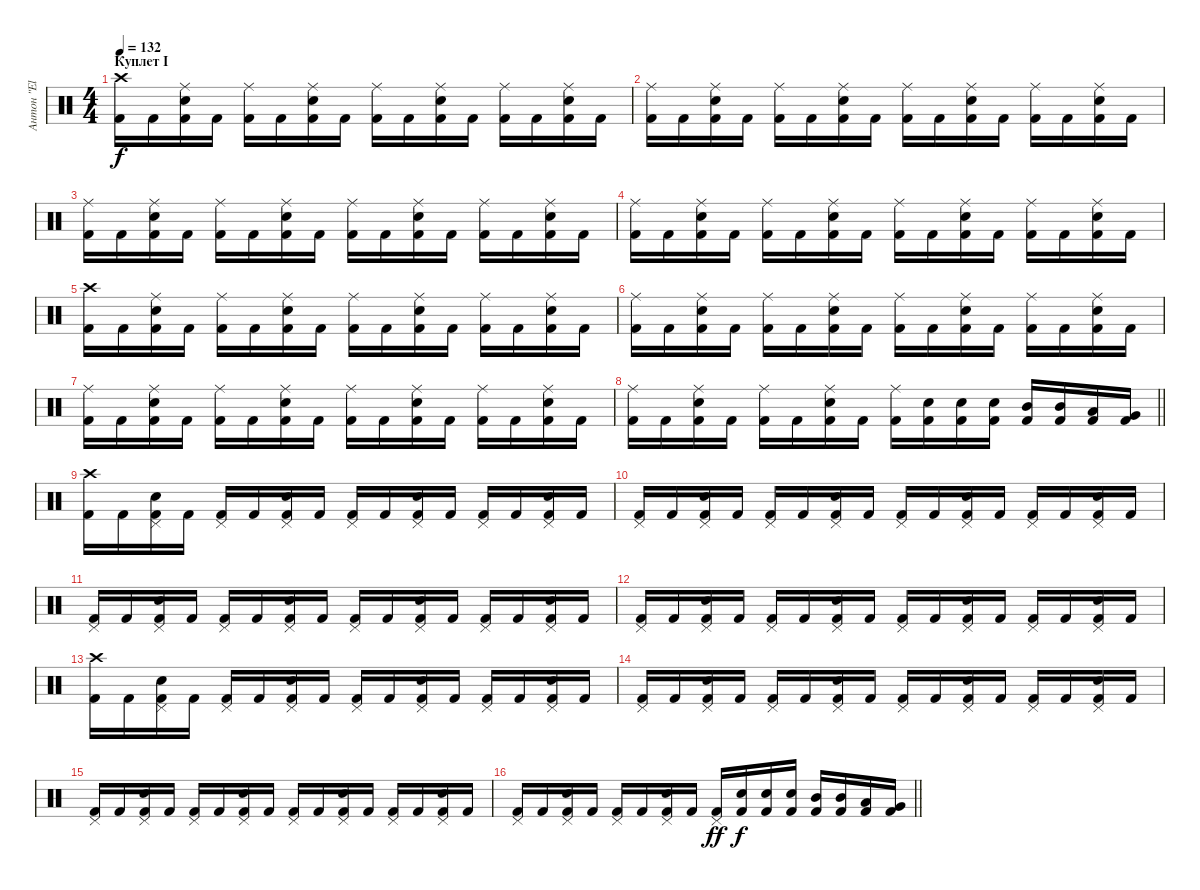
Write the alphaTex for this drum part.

\track ("Антон \"El Bastardo\" Смольянин" "Антон \"El ") {instrument percussion}
\staff {score}
\articulation defaults
\ts (4 4)
\section ("" "Куплет I")
\tempo 132
\clef neutral
\ks c
("Crash high (hit)" "Kick (hit) 2").16{dy f} "Kick (hit) 2".16 ("Ride (middle)" "Electric Snare (hit)" "Kick (hit) 2").16 "Kick (hit) 2".16 ("Ride (middle)" "Kick (hit) 2").16 "Kick (hit) 2".16 ("Ride (middle)" "Electric Snare (hit)" "Kick (hit) 2").16 "Kick (hit) 2".16 ("Ride (middle)" "Kick (hit) 2").16 "Kick (hit) 2".16 ("Ride (middle)" "Electric Snare (hit)" "Kick (hit) 2").16 "Kick (hit) 2".16 ("Ride (middle)" "Kick (hit) 2").16 "Kick (hit) 2".16 ("Ride (middle)" "Electric Snare (hit)" "Kick (hit) 2").16 "Kick (hit) 2".16 |
("Ride (middle)" "Kick (hit) 2").16 "Kick (hit) 2".16 ("Ride (middle)" "Electric Snare (hit)" "Kick (hit) 2").16 "Kick (hit) 2".16 ("Ride (middle)" "Kick (hit) 2").16 "Kick (hit) 2".16 ("Ride (middle)" "Electric Snare (hit)" "Kick (hit) 2").16 "Kick (hit) 2".16 ("Ride (middle)" "Kick (hit) 2").16 "Kick (hit) 2".16 ("Ride (middle)" "Electric Snare (hit)" "Kick (hit) 2").16 "Kick (hit) 2".16 ("Ride (middle)" "Kick (hit) 2").16 "Kick (hit) 2".16 ("Ride (middle)" "Electric Snare (hit)" "Kick (hit) 2").16 "Kick (hit) 2".16 |
("Ride (middle)" "Kick (hit) 2").16 "Kick (hit) 2".16 ("Ride (middle)" "Electric Snare (hit)" "Kick (hit) 2").16 "Kick (hit) 2".16 ("Ride (middle)" "Kick (hit) 2").16 "Kick (hit) 2".16 ("Ride (middle)" "Electric Snare (hit)" "Kick (hit) 2").16 "Kick (hit) 2".16 ("Ride (middle)" "Kick (hit) 2").16 "Kick (hit) 2".16 ("Ride (middle)" "Electric Snare (hit)" "Kick (hit) 2").16 "Kick (hit) 2".16 ("Ride (middle)" "Kick (hit) 2").16 "Kick (hit) 2".16 ("Ride (middle)" "Electric Snare (hit)" "Kick (hit) 2").16 "Kick (hit) 2".16 |
("Ride (middle)" "Kick (hit) 2").16 "Kick (hit) 2".16 ("Ride (middle)" "Electric Snare (hit)" "Kick (hit) 2").16 "Kick (hit) 2".16 ("Ride (middle)" "Kick (hit) 2").16 "Kick (hit) 2".16 ("Ride (middle)" "Electric Snare (hit)" "Kick (hit) 2").16 "Kick (hit) 2".16 ("Ride (middle)" "Kick (hit) 2").16 "Kick (hit) 2".16 ("Ride (middle)" "Electric Snare (hit)" "Kick (hit) 2").16 "Kick (hit) 2".16 ("Ride (middle)" "Kick (hit) 2").16 "Kick (hit) 2".16 ("Ride (middle)" "Electric Snare (hit)" "Kick (hit) 2").16 "Kick (hit) 2".16 |
("Crash high (hit)" "Kick (hit) 2").16 "Kick (hit) 2".16 ("Ride (middle)" "Electric Snare (hit)" "Kick (hit) 2").16 "Kick (hit) 2".16 ("Ride (middle)" "Kick (hit) 2").16 "Kick (hit) 2".16 ("Ride (middle)" "Electric Snare (hit)" "Kick (hit) 2").16 "Kick (hit) 2".16 ("Ride (middle)" "Kick (hit) 2").16 "Kick (hit) 2".16 ("Ride (middle)" "Electric Snare (hit)" "Kick (hit) 2").16 "Kick (hit) 2".16 ("Ride (middle)" "Kick (hit) 2").16 "Kick (hit) 2".16 ("Ride (middle)" "Electric Snare (hit)" "Kick (hit) 2").16 "Kick (hit) 2".16 |
("Ride (middle)" "Kick (hit) 2").16 "Kick (hit) 2".16 ("Ride (middle)" "Electric Snare (hit)" "Kick (hit) 2").16 "Kick (hit) 2".16 ("Ride (middle)" "Kick (hit) 2").16 "Kick (hit) 2".16 ("Ride (middle)" "Electric Snare (hit)" "Kick (hit) 2").16 "Kick (hit) 2".16 ("Ride (middle)" "Kick (hit) 2").16 "Kick (hit) 2".16 ("Ride (middle)" "Electric Snare (hit)" "Kick (hit) 2").16 "Kick (hit) 2".16 ("Ride (middle)" "Kick (hit) 2").16 "Kick (hit) 2".16 ("Ride (middle)" "Electric Snare (hit)" "Kick (hit) 2").16 "Kick (hit) 2".16 |
("Ride (middle)" "Kick (hit) 2").16 "Kick (hit) 2".16 ("Ride (middle)" "Electric Snare (hit)" "Kick (hit) 2").16 "Kick (hit) 2".16 ("Ride (middle)" "Kick (hit) 2").16 "Kick (hit) 2".16 ("Ride (middle)" "Electric Snare (hit)" "Kick (hit) 2").16 "Kick (hit) 2".16 ("Ride (middle)" "Kick (hit) 2").16 "Kick (hit) 2".16 ("Ride (middle)" "Electric Snare (hit)" "Kick (hit) 2").16 "Kick (hit) 2".16 ("Ride (middle)" "Kick (hit) 2").16 "Kick (hit) 2".16 ("Ride (middle)" "Electric Snare (hit)" "Kick (hit) 2").16 "Kick (hit) 2".16 |
\barLineRight lightlight
("Ride (middle)" "Kick (hit) 2").16 "Kick (hit) 2".16 ("Ride (middle)" "Electric Snare (hit)" "Kick (hit) 2").16 "Kick (hit) 2".16 ("Ride (middle)" "Kick (hit) 2").16 "Kick (hit) 2".16 ("Ride (middle)" "Electric Snare (hit)" "Kick (hit) 2").16 "Kick (hit) 2".16 ("Ride (middle)" "Kick (hit) 2").16 ("Electric Snare (hit)" "Kick (hit) 2").16 ("Electric Snare (hit)" "Kick (hit) 2").16 ("Electric Snare (hit)" "Kick (hit) 2").16 ("Mid Tom (hit)" "Kick (hit) 2").16 ("Mid Tom (hit)" "Kick (hit) 2").16 ("Low Tom (hit)" "Kick (hit) 2").16 ("Very Low Tom (hit)" "Kick (hit) 2").16 |
("Crash high (hit)" "Kick (hit) 2").16 "Kick (hit) 2".16 ("Pedal Hi-Hat (hit)" "Electric Snare (hit)" "Kick (hit) 2").16 "Kick (hit) 2".16 ("Pedal Hi-Hat (hit)" "Kick (hit) 2").16 "Kick (hit) 2".16 ("Pedal Hi-Hat (hit)" "Electric Snare (hit)" "Kick (hit) 2").16 "Kick (hit) 2".16 ("Pedal Hi-Hat (hit)" "Kick (hit) 2").16 "Kick (hit) 2".16 ("Pedal Hi-Hat (hit)" "Electric Snare (hit)" "Kick (hit) 2").16 "Kick (hit) 2".16 ("Pedal Hi-Hat (hit)" "Kick (hit) 2").16 "Kick (hit) 2".16 ("Pedal Hi-Hat (hit)" "Electric Snare (hit)" "Kick (hit) 2").16 "Kick (hit) 2".16 |
("Pedal Hi-Hat (hit)" "Kick (hit) 2").16 "Kick (hit) 2".16 ("Pedal Hi-Hat (hit)" "Electric Snare (hit)" "Kick (hit) 2").16 "Kick (hit) 2".16 ("Pedal Hi-Hat (hit)" "Kick (hit) 2").16 "Kick (hit) 2".16 ("Pedal Hi-Hat (hit)" "Electric Snare (hit)" "Kick (hit) 2").16 "Kick (hit) 2".16 ("Pedal Hi-Hat (hit)" "Kick (hit) 2").16 "Kick (hit) 2".16 ("Pedal Hi-Hat (hit)" "Electric Snare (hit)" "Kick (hit) 2").16 "Kick (hit) 2".16 ("Pedal Hi-Hat (hit)" "Kick (hit) 2").16 "Kick (hit) 2".16 ("Pedal Hi-Hat (hit)" "Electric Snare (hit)" "Kick (hit) 2").16 "Kick (hit) 2".16 |
("Pedal Hi-Hat (hit)" "Kick (hit) 2").16 "Kick (hit) 2".16 ("Pedal Hi-Hat (hit)" "Electric Snare (hit)" "Kick (hit) 2").16 "Kick (hit) 2".16 ("Pedal Hi-Hat (hit)" "Kick (hit) 2").16 "Kick (hit) 2".16 ("Pedal Hi-Hat (hit)" "Electric Snare (hit)" "Kick (hit) 2").16 "Kick (hit) 2".16 ("Pedal Hi-Hat (hit)" "Kick (hit) 2").16 "Kick (hit) 2".16 ("Pedal Hi-Hat (hit)" "Electric Snare (hit)" "Kick (hit) 2").16 "Kick (hit) 2".16 ("Pedal Hi-Hat (hit)" "Kick (hit) 2").16 "Kick (hit) 2".16 ("Pedal Hi-Hat (hit)" "Electric Snare (hit)" "Kick (hit) 2").16 "Kick (hit) 2".16 |
("Pedal Hi-Hat (hit)" "Kick (hit) 2").16 "Kick (hit) 2".16 ("Pedal Hi-Hat (hit)" "Electric Snare (hit)" "Kick (hit) 2").16 "Kick (hit) 2".16 ("Pedal Hi-Hat (hit)" "Kick (hit) 2").16 "Kick (hit) 2".16 ("Pedal Hi-Hat (hit)" "Electric Snare (hit)" "Kick (hit) 2").16 "Kick (hit) 2".16 ("Pedal Hi-Hat (hit)" "Kick (hit) 2").16 "Kick (hit) 2".16 ("Pedal Hi-Hat (hit)" "Electric Snare (hit)" "Kick (hit) 2").16 "Kick (hit) 2".16 ("Pedal Hi-Hat (hit)" "Kick (hit) 2").16 "Kick (hit) 2".16 ("Pedal Hi-Hat (hit)" "Electric Snare (hit)" "Kick (hit) 2").16 "Kick (hit) 2".16 |
("Crash high (hit)" "Kick (hit) 2").16 "Kick (hit) 2".16 ("Pedal Hi-Hat (hit)" "Electric Snare (hit)" "Kick (hit) 2").16 "Kick (hit) 2".16 ("Pedal Hi-Hat (hit)" "Kick (hit) 2").16 "Kick (hit) 2".16 ("Pedal Hi-Hat (hit)" "Electric Snare (hit)" "Kick (hit) 2").16 "Kick (hit) 2".16 ("Pedal Hi-Hat (hit)" "Kick (hit) 2").16 "Kick (hit) 2".16 ("Pedal Hi-Hat (hit)" "Electric Snare (hit)" "Kick (hit) 2").16 "Kick (hit) 2".16 ("Pedal Hi-Hat (hit)" "Kick (hit) 2").16 "Kick (hit) 2".16 ("Pedal Hi-Hat (hit)" "Electric Snare (hit)" "Kick (hit) 2").16 "Kick (hit) 2".16 |
("Pedal Hi-Hat (hit)" "Kick (hit) 2").16 "Kick (hit) 2".16 ("Pedal Hi-Hat (hit)" "Electric Snare (hit)" "Kick (hit) 2").16 "Kick (hit) 2".16 ("Pedal Hi-Hat (hit)" "Kick (hit) 2").16 "Kick (hit) 2".16 ("Pedal Hi-Hat (hit)" "Electric Snare (hit)" "Kick (hit) 2").16 "Kick (hit) 2".16 ("Pedal Hi-Hat (hit)" "Kick (hit) 2").16 "Kick (hit) 2".16 ("Pedal Hi-Hat (hit)" "Electric Snare (hit)" "Kick (hit) 2").16 "Kick (hit) 2".16 ("Pedal Hi-Hat (hit)" "Kick (hit) 2").16 "Kick (hit) 2".16 ("Pedal Hi-Hat (hit)" "Electric Snare (hit)" "Kick (hit) 2").16 "Kick (hit) 2".16 |
("Pedal Hi-Hat (hit)" "Kick (hit) 2").16 "Kick (hit) 2".16 ("Pedal Hi-Hat (hit)" "Electric Snare (hit)" "Kick (hit) 2").16 "Kick (hit) 2".16 ("Pedal Hi-Hat (hit)" "Kick (hit) 2").16 "Kick (hit) 2".16 ("Pedal Hi-Hat (hit)" "Electric Snare (hit)" "Kick (hit) 2").16 "Kick (hit) 2".16 ("Pedal Hi-Hat (hit)" "Kick (hit) 2").16 "Kick (hit) 2".16 ("Pedal Hi-Hat (hit)" "Electric Snare (hit)" "Kick (hit) 2").16 "Kick (hit) 2".16 ("Pedal Hi-Hat (hit)" "Kick (hit) 2").16 "Kick (hit) 2".16 ("Pedal Hi-Hat (hit)" "Electric Snare (hit)" "Kick (hit) 2").16 "Kick (hit) 2".16 |
\barLineRight lightlight
("Pedal Hi-Hat (hit)" "Kick (hit) 2").16 "Kick (hit) 2".16 ("Pedal Hi-Hat (hit)" "Electric Snare (hit)" "Kick (hit) 2").16 "Kick (hit) 2".16 ("Pedal Hi-Hat (hit)" "Kick (hit) 2").16 "Kick (hit) 2".16 ("Pedal Hi-Hat (hit)" "Electric Snare (hit)" "Kick (hit) 2").16 "Kick (hit) 2".16 ("Pedal Hi-Hat (hit)" "Kick (hit) 2").16{dy ff} ("Electric Snare (hit)" "Kick (hit) 2").16{dy f} ("Electric Snare (hit)" "Kick (hit) 2").16 ("Electric Snare (hit)" "Kick (hit) 2").16 ("Mid Tom (hit)" "Kick (hit) 2").16 ("Mid Tom (hit)" "Kick (hit) 2").16 ("Low Tom (hit)" "Kick (hit) 2").16 ("Very Low Tom (hit)" "Kick (hit) 2").16
